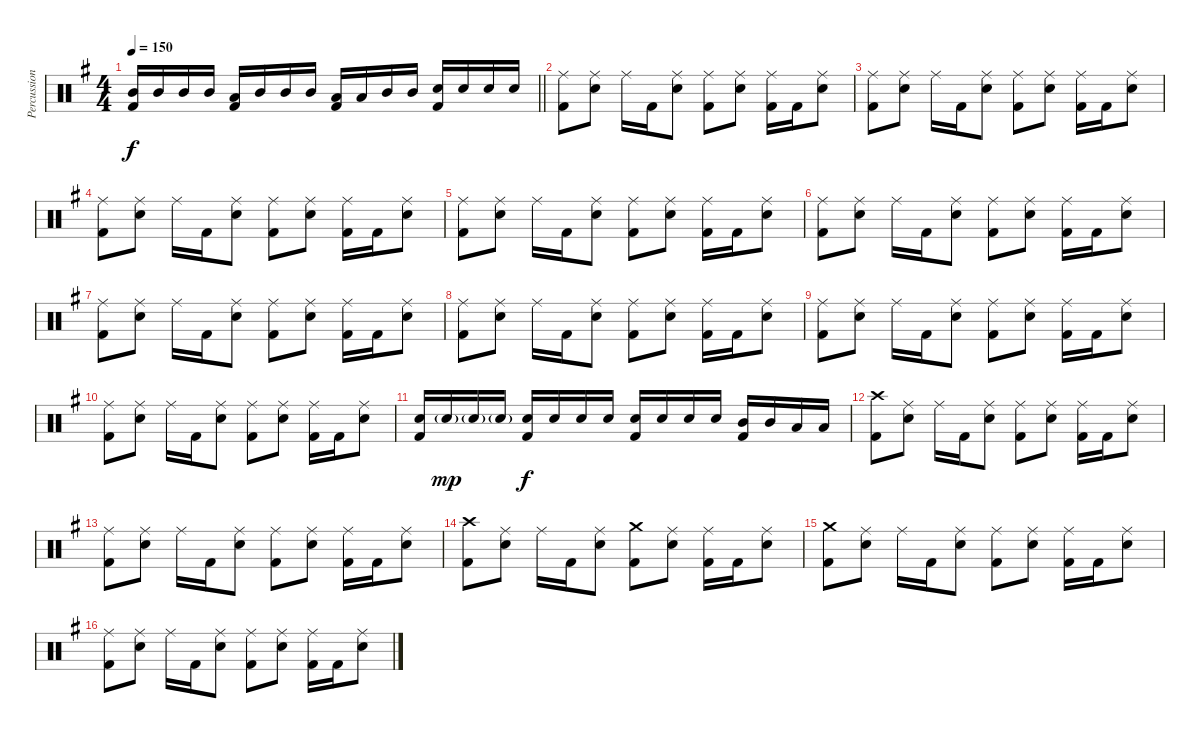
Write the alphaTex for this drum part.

\track ("Percussion" "Percussion") {instrument percussion}
\staff {score}
\articulation defaults
\ts (4 4)
\tempo 150
\clef neutral
\barLineRight lightlight
\ks g
("Mid Tom (hit)" "Kick (hit) 2").16{dy f} "Mid Tom (hit)".16 "Mid Tom (hit)".16 "Mid Tom (hit)".16 ("Low Tom (hit)" "Kick (hit) 2").16 "Mid Tom (hit)".16 "Mid Tom (hit)".16 "Mid Tom (hit)".16 ("Low Tom (hit)" "Kick (hit) 2").16 "Low Tom (hit)".16 "Mid Tom (hit)".16 "Mid Tom (hit)".16 ("Electric Snare (hit)" "Kick (hit) 2").16 "Electric Snare (hit)".16 "Electric Snare (hit)".16 "Electric Snare (hit)".16 |
("Ride (middle)" "Kick (hit) 2").8 ("Ride (middle)" "Electric Snare (hit)").8 "Ride (middle)".16 "Kick (hit) 2".16 ("Ride (middle)" "Electric Snare (hit)").8 ("Ride (middle)" "Kick (hit) 2").8 ("Ride (middle)" "Electric Snare (hit)").8 ("Ride (middle)" "Kick (hit) 2").16 "Kick (hit) 2".16 ("Ride (middle)" "Electric Snare (hit)").8 |
("Ride (middle)" "Kick (hit) 2").8 ("Ride (middle)" "Electric Snare (hit)").8 "Ride (middle)".16 "Kick (hit) 2".16 ("Ride (middle)" "Electric Snare (hit)").8 ("Ride (middle)" "Kick (hit) 2").8 ("Ride (middle)" "Electric Snare (hit)").8 ("Ride (middle)" "Kick (hit) 2").16 "Kick (hit) 2".16 ("Ride (middle)" "Electric Snare (hit)").8 |
("Ride (middle)" "Kick (hit) 2").8 ("Ride (middle)" "Electric Snare (hit)").8 "Ride (middle)".16 "Kick (hit) 2".16 ("Ride (middle)" "Electric Snare (hit)").8 ("Ride (middle)" "Kick (hit) 2").8 ("Ride (middle)" "Electric Snare (hit)").8 ("Ride (middle)" "Kick (hit) 2").16 "Kick (hit) 2".16 ("Ride (middle)" "Electric Snare (hit)").8 |
("Ride (middle)" "Kick (hit) 2").8 ("Ride (middle)" "Electric Snare (hit)").8 "Ride (middle)".16 "Kick (hit) 2".16 ("Ride (middle)" "Electric Snare (hit)").8 ("Ride (middle)" "Kick (hit) 2").8 ("Ride (middle)" "Electric Snare (hit)").8 ("Ride (middle)" "Kick (hit) 2").16 "Kick (hit) 2".16 ("Ride (middle)" "Electric Snare (hit)").8 |
("Ride (middle)" "Kick (hit) 2").8 ("Ride (middle)" "Electric Snare (hit)").8 "Ride (middle)".16 "Kick (hit) 2".16 ("Ride (middle)" "Electric Snare (hit)").8 ("Ride (middle)" "Kick (hit) 2").8 ("Ride (middle)" "Electric Snare (hit)").8 ("Ride (middle)" "Kick (hit) 2").16 "Kick (hit) 2".16 ("Ride (middle)" "Electric Snare (hit)").8 |
("Ride (middle)" "Kick (hit) 2").8 ("Ride (middle)" "Electric Snare (hit)").8 "Ride (middle)".16 "Kick (hit) 2".16 ("Ride (middle)" "Electric Snare (hit)").8 ("Ride (middle)" "Kick (hit) 2").8 ("Ride (middle)" "Electric Snare (hit)").8 ("Ride (middle)" "Kick (hit) 2").16 "Kick (hit) 2".16 ("Ride (middle)" "Electric Snare (hit)").8 |
("Ride (middle)" "Kick (hit) 2").8 ("Ride (middle)" "Electric Snare (hit)").8 "Ride (middle)".16 "Kick (hit) 2".16 ("Ride (middle)" "Electric Snare (hit)").8 ("Ride (middle)" "Kick (hit) 2").8 ("Ride (middle)" "Electric Snare (hit)").8 ("Ride (middle)" "Kick (hit) 2").16 "Kick (hit) 2".16 ("Ride (middle)" "Electric Snare (hit)").8 |
("Ride (middle)" "Kick (hit) 2").8 ("Ride (middle)" "Electric Snare (hit)").8 "Ride (middle)".16 "Kick (hit) 2".16 ("Ride (middle)" "Electric Snare (hit)").8 ("Ride (middle)" "Kick (hit) 2").8 ("Ride (middle)" "Electric Snare (hit)").8 ("Ride (middle)" "Kick (hit) 2").16 "Kick (hit) 2".16 ("Ride (middle)" "Electric Snare (hit)").8 |
("Ride (middle)" "Kick (hit) 2").8 ("Ride (middle)" "Electric Snare (hit)").8 "Ride (middle)".16 "Kick (hit) 2".16 ("Ride (middle)" "Electric Snare (hit)").8 ("Ride (middle)" "Kick (hit) 2").8 ("Ride (middle)" "Electric Snare (hit)").8 ("Ride (middle)" "Kick (hit) 2").16 "Kick (hit) 2".16 ("Ride (middle)" "Electric Snare (hit)").8 |
("Electric Snare (hit)" "Kick (hit) 2").16 "Electric Snare (hit)"{g}.16{dy mp} "Electric Snare (hit)"{g}.16 "Electric Snare (hit)"{g}.16 ("Snare (hit) 2" "Kick (hit) 2").16{dy f} "Snare (hit) 2".16 "Snare (hit) 2".16 "Snare (hit) 2".16 ("Electric Snare (hit)" "Kick (hit) 2").16 "Electric Snare (hit)".16 "Electric Snare (hit)".16 "Electric Snare (hit)".16 ("Mid Tom (hit)" "Kick (hit) 2").16 "Mid Tom (hit)".16 "Low Tom (hit)".16 "Low Tom (hit)".16 |
("Crash high (hit)" "Kick (hit) 2").8 ("Ride (middle)" "Electric Snare (hit)").8 "Ride (middle)".16 "Kick (hit) 2".16 ("Ride (middle)" "Electric Snare (hit)").8 ("Ride (middle)" "Kick (hit) 2").8 ("Ride (middle)" "Electric Snare (hit)").8 ("Ride (middle)" "Kick (hit) 2").16 "Kick (hit) 2".16 ("Ride (middle)" "Electric Snare (hit)").8 |
("Ride (middle)" "Kick (hit) 2").8 ("Ride (middle)" "Electric Snare (hit)").8 "Ride (middle)".16 "Kick (hit) 2".16 ("Ride (middle)" "Electric Snare (hit)").8 ("Ride (middle)" "Kick (hit) 2").8 ("Ride (middle)" "Electric Snare (hit)").8 ("Ride (middle)" "Kick (hit) 2").16 "Kick (hit) 2".16 ("Ride (middle)" "Electric Snare (hit)").8 |
("Crash high (hit)" "Kick (hit) 2").8 ("Ride (middle)" "Electric Snare (hit)").8 "Ride (middle)".16 "Kick (hit) 2".16 ("Ride (middle)" "Electric Snare (hit)").8 ("Crash medium (hit)" "Kick (hit) 2").8 ("Ride (middle)" "Electric Snare (hit)").8 ("Ride (middle)" "Kick (hit) 2").16 "Kick (hit) 2".16 ("Ride (middle)" "Electric Snare (hit)").8 |
("Crash medium (hit)" "Kick (hit) 2").8 ("Ride (middle)" "Electric Snare (hit)").8 "Ride (middle)".16 "Kick (hit) 2".16 ("Ride (middle)" "Electric Snare (hit)").8 ("Ride (middle)" "Kick (hit) 2").8 ("Ride (middle)" "Electric Snare (hit)").8 ("Ride (middle)" "Kick (hit) 2").16 "Kick (hit) 2".16 ("Ride (middle)" "Electric Snare (hit)").8 |
("Ride (middle)" "Kick (hit) 2").8 ("Ride (middle)" "Electric Snare (hit)").8 "Ride (middle)".16 "Kick (hit) 2".16 ("Ride (middle)" "Electric Snare (hit)").8 ("Ride (middle)" "Kick (hit) 2").8 ("Ride (middle)" "Electric Snare (hit)").8 ("Ride (middle)" "Kick (hit) 2").16 "Kick (hit) 2".16 ("Ride (middle)" "Electric Snare (hit)").8
